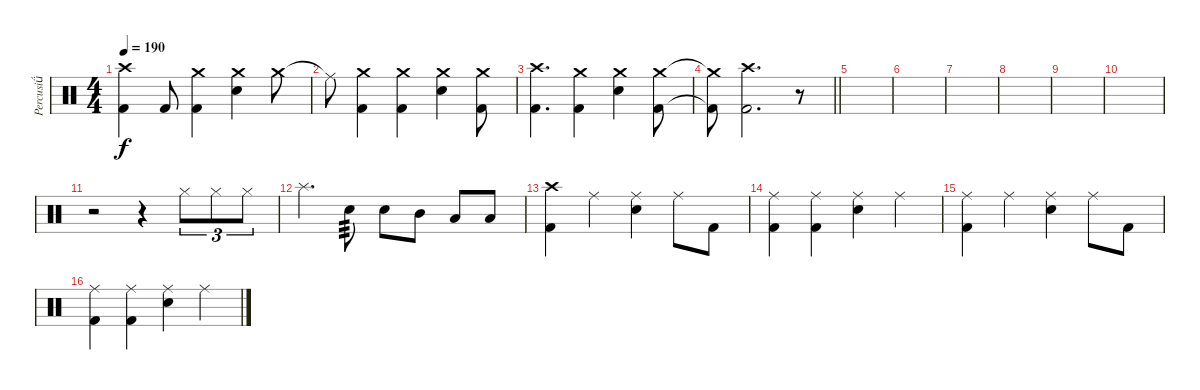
\track ("Percusi" "Percusi") {instrument percussion}
\staff {score}
\articulation defaults
\ts (4 4)
\tempo 190
\clef neutral
\ks c
("Crash high (hit)" "Kick (hit) 2").4{dy f} "Kick (hit) 2".8 ("Crash medium (hit)" "Kick (hit) 2").4 ("Crash medium (hit)" "Electric Snare (hit)").4 "Crash medium (hit)".8 |
"Ride (middle)"{t}.8 ("Crash medium (hit)" "Kick (hit) 2").4 ("Crash medium (hit)" "Kick (hit) 2").4 ("Crash medium (hit)" "Electric Snare (hit)").4 ("Crash medium (hit)" "Kick (hit) 2").8 |
("Crash high (hit)" "Kick (hit) 2").4{d} ("Crash medium (hit)" "Kick (hit) 2").4 ("Crash medium (hit)" "Electric Snare (hit)").4 ("Crash medium (hit)" "Kick (hit) 2").8 |
\barLineRight lightlight
("Crash medium (hit)"{t} "Kick (hit) 2"{t}).8 ("Crash high (hit)" "Kick (hit) 2").2{d} r.8 |
|
|
|
|
|
|
r.2 r.4 "Hi-Hat (closed)".8{tu (3 2)} "Hi-Hat (closed)".8{tu (3 2)} "Hi-Hat (closed)".8{tu (3 2)} |
"Splash (hit)".4{d} "Electric Snare (hit)".8{tp 3} "Electric Snare (hit)".8 "Mid Tom (hit)".8 "Low Tom (hit)".8 "Low Floor Tom (hit)".8 |
("Crash high (hit)" "Kick (hit) 2").4 "Ride (middle)".4 ("Ride (middle)" "Electric Snare (hit)").4 "Ride (middle)".8 "Kick (hit) 2".8 |
("Ride (middle)" "Kick (hit) 2").4 ("Ride (middle)" "Kick (hit) 2").4 ("Ride (middle)" "Electric Snare (hit)").4 "Ride (middle)".4 |
("Ride (middle)" "Kick (hit) 2").4 "Ride (middle)".4 ("Ride (middle)" "Electric Snare (hit)").4 "Ride (middle)".8 "Kick (hit) 2".8 |
("Ride (middle)" "Kick (hit) 2").4 ("Ride (middle)" "Kick (hit) 2").4 ("Ride (middle)" "Electric Snare (hit)").4 "Ride (middle)".4
